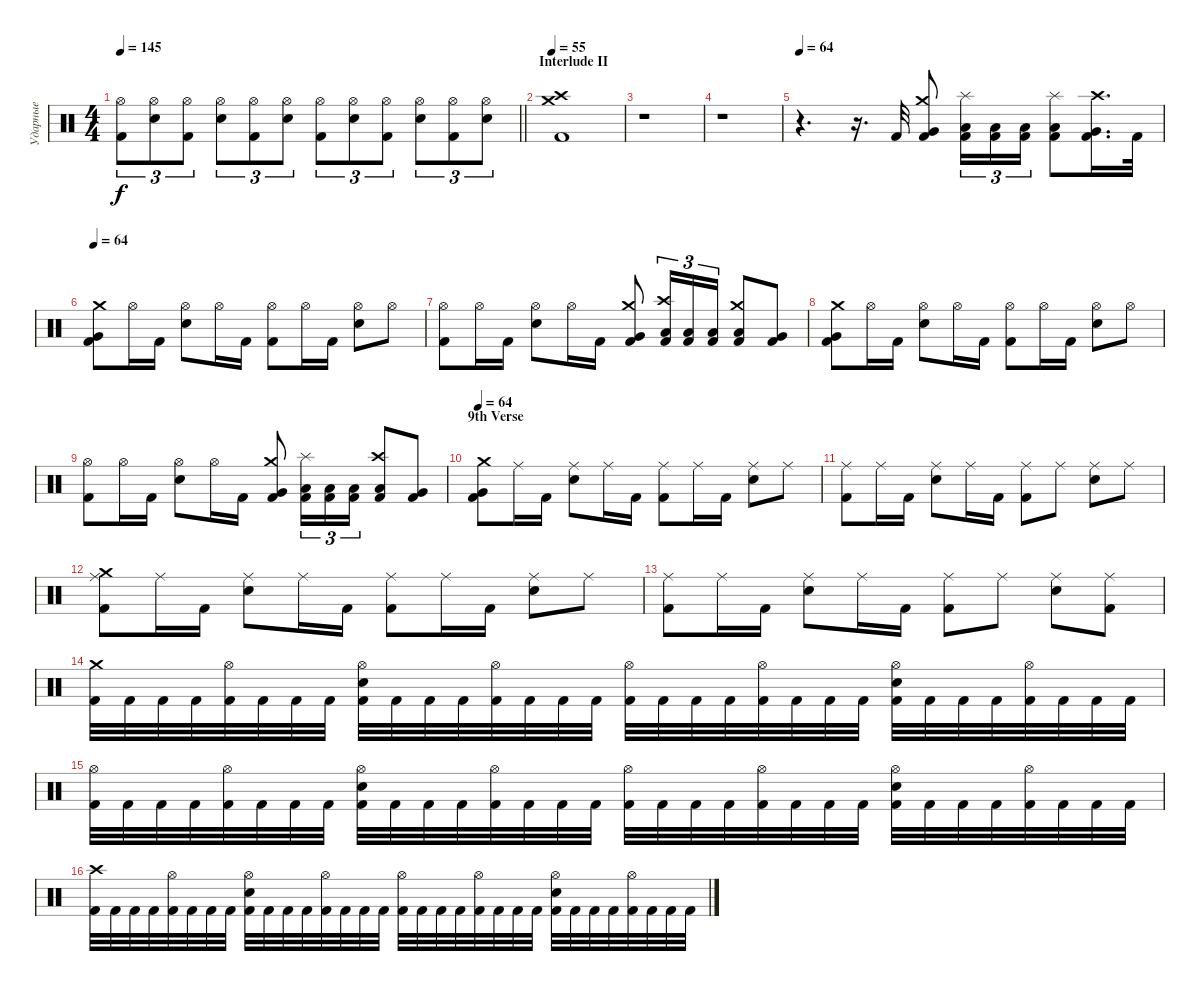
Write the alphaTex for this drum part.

\track ("Ударные" "Ударные") {instrument percussion}
\staff {score}
\articulation defaults
\ts (4 4)
\tempo 145
\clef neutral
\barLineRight lightlight
\ks c
("Kick (hit) 2" "Hi-Hat (open)").8{tu (3 2) dy f} ("Snare (hit) 2" "Hi-Hat (open)").8{tu (3 2)} ("Kick (hit) 2" "Hi-Hat (open)").8{tu (3 2)} ("Snare (hit) 2" "Hi-Hat (open)").8{tu (3 2)} ("Kick (hit) 2" "Hi-Hat (open)").8{tu (3 2)} ("Snare (hit) 2" "Hi-Hat (open)").8{tu (3 2)} ("Kick (hit) 2" "Hi-Hat (open)").8{tu (3 2)} ("Snare (hit) 2" "Hi-Hat (open)").8{tu (3 2)} ("Kick (hit) 2" "Hi-Hat (open)").8{tu (3 2)} ("Snare (hit) 2" "Hi-Hat (open)").8{tu (3 2)} ("Kick (hit) 2" "Hi-Hat (open)").8{tu (3 2)} ("Snare (hit) 2" "Hi-Hat (open)").8{tu (3 2)} |
\section ("" "Interlude II")
\tempo 55
("Kick (hit) 2" "Crash high (hit)" "Crash medium (hit)").1 |
r.1 |
r.1 |
\tempo 64
r.4{d} r.16{d} "Kick (hit) 2".32 ("Kick (hit) 2" "Very Low Tom (hit)" "Crash medium (hit)").8 ("Kick (hit) 2" "Low Floor Tom (hit)" "Splash (hit)").16{tu (3 2)} ("Kick (hit) 2" "Low Floor Tom (hit)").16{tu (3 2)} ("Kick (hit) 2" "Low Floor Tom (hit)").16{tu (3 2)} ("Kick (hit) 2" "Low Floor Tom (hit)" "Splash (hit)").8 ("Kick (hit) 2" "Very Low Tom (hit)" "Crash high (hit)").16{d} "Kick (hit) 2".32 |
\tempo 64
("Kick (hit) 2" "Very Low Tom (hit)" "Crash medium (hit)").8 "Hi-Hat (open)".16 "Kick (hit) 2".16 ("Electric Snare (hit)" "Hi-Hat (open)").8 "Hi-Hat (open)".16 "Kick (hit) 2".16 ("Kick (hit) 2" "Hi-Hat (open)").8 "Hi-Hat (open)".16 "Kick (hit) 2".16 ("Electric Snare (hit)" "Hi-Hat (open)").8 "Hi-Hat (open)".8 |
("Kick (hit) 2" "Hi-Hat (open)").8 "Hi-Hat (open)".16 "Kick (hit) 2".16 ("Electric Snare (hit)" "Hi-Hat (open)").8 "Hi-Hat (open)".16 "Kick (hit) 2".16 ("Kick (hit) 2" "Very Low Tom (hit)" "Crash medium (hit)").8 ("Kick (hit) 2" "Low Floor Tom (hit)" "Crash high (hit)").16{tu (3 2)} ("Kick (hit) 2" "Low Floor Tom (hit)").16{tu (3 2)} ("Kick (hit) 2" "Low Floor Tom (hit)").16{tu (3 2)} ("Kick (hit) 2" "Low Floor Tom (hit)" "Crash medium (hit)").8 ("Kick (hit) 2" "Very Low Tom (hit)").8 |
("Kick (hit) 2" "Very Low Tom (hit)" "Crash medium (hit)").8 "Hi-Hat (open)".16 "Kick (hit) 2".16 ("Electric Snare (hit)" "Hi-Hat (open)").8 "Hi-Hat (open)".16 "Kick (hit) 2".16 ("Kick (hit) 2" "Hi-Hat (open)").8 "Hi-Hat (open)".16 "Kick (hit) 2".16 ("Electric Snare (hit)" "Hi-Hat (open)").8 "Hi-Hat (open)".8 |
("Kick (hit) 2" "Hi-Hat (open)").8 "Hi-Hat (open)".16 "Kick (hit) 2".16 ("Electric Snare (hit)" "Hi-Hat (open)").8 "Hi-Hat (open)".16 "Kick (hit) 2".16 ("Kick (hit) 2" "Very Low Tom (hit)" "Crash medium (hit)").8 ("Kick (hit) 2" "Low Floor Tom (hit)" "Splash (hit)").16{tu (3 2)} ("Kick (hit) 2" "Low Floor Tom (hit)").16{tu (3 2)} ("Kick (hit) 2" "Low Floor Tom (hit)").16{tu (3 2)} ("Kick (hit) 2" "Low Floor Tom (hit)" "Crash high (hit)").8 ("Kick (hit) 2" "Very Low Tom (hit)").8 |
\section ("" "9th Verse")
\tempo 64
("Kick (hit) 2" "Very Low Tom (hit)" "Crash medium (hit)").8 "Ride (middle)".16 "Kick (hit) 2".16 ("Electric Snare (hit)" "Ride (middle)").8 "Ride (middle)".16 "Kick (hit) 2".16 ("Kick (hit) 2" "Ride (middle)").8 "Ride (middle)".16 "Kick (hit) 2".16 ("Electric Snare (hit)" "Ride (middle)").8 "Ride (middle)".8 |
("Kick (hit) 2" "Ride (middle)").8 "Ride (middle)".16 "Kick (hit) 2".16 ("Electric Snare (hit)" "Ride (middle)").8 "Ride (middle)".16 "Kick (hit) 2".16 ("Kick (hit) 2" "Ride (middle)").8 "Ride (middle)".8 ("Electric Snare (hit)" "Ride (middle)").8 "Ride (middle)".8 |
("Kick (hit) 2" "Ride (middle)" "Crash medium (hit)").8 "Ride (middle)".16 "Kick (hit) 2".16 ("Electric Snare (hit)" "Ride (middle)").8 "Ride (middle)".16 "Kick (hit) 2".16 ("Kick (hit) 2" "Ride (middle)").8 "Ride (middle)".16 "Kick (hit) 2".16 ("Electric Snare (hit)" "Ride (middle)").8 "Ride (middle)".8 |
("Kick (hit) 2" "Ride (middle)").8 "Ride (middle)".16 "Kick (hit) 2".16 ("Electric Snare (hit)" "Ride (middle)").8 "Ride (middle)".16 "Kick (hit) 2".16 ("Kick (hit) 2" "Ride (middle)").8 "Ride (middle)".8 ("Electric Snare (hit)" "Ride (middle)").8 ("Kick (hit) 2" "Ride (middle)").8 |
("Kick (hit) 2" "Crash medium (hit)").32 "Kick (hit) 2".32 "Kick (hit) 2".32 "Kick (hit) 2".32 ("Kick (hit) 2" "Hi-Hat (open)").32 "Kick (hit) 2".32 "Kick (hit) 2".32 "Kick (hit) 2".32 ("Kick (hit) 2" "Electric Snare (hit)" "Hi-Hat (open)").32 "Kick (hit) 2".32 "Kick (hit) 2".32 "Kick (hit) 2".32 ("Kick (hit) 2" "Hi-Hat (open)").32 "Kick (hit) 2".32 "Kick (hit) 2".32 "Kick (hit) 2".32 ("Kick (hit) 2" "Hi-Hat (open)").32 "Kick (hit) 2".32 "Kick (hit) 2".32 "Kick (hit) 2".32 ("Kick (hit) 2" "Hi-Hat (open)").32 "Kick (hit) 2".32 "Kick (hit) 2".32 "Kick (hit) 2".32 ("Kick (hit) 2" "Electric Snare (hit)" "Hi-Hat (open)").32 "Kick (hit) 2".32 "Kick (hit) 2".32 "Kick (hit) 2".32 ("Kick (hit) 2" "Hi-Hat (open)").32 "Kick (hit) 2".32 "Kick (hit) 2".32 "Kick (hit) 2".32 |
("Kick (hit) 2" "Hi-Hat (open)").32 "Kick (hit) 2".32 "Kick (hit) 2".32 "Kick (hit) 2".32 ("Kick (hit) 2" "Hi-Hat (open)").32 "Kick (hit) 2".32 "Kick (hit) 2".32 "Kick (hit) 2".32 ("Kick (hit) 2" "Electric Snare (hit)" "Hi-Hat (open)").32 "Kick (hit) 2".32 "Kick (hit) 2".32 "Kick (hit) 2".32 ("Kick (hit) 2" "Hi-Hat (open)").32 "Kick (hit) 2".32 "Kick (hit) 2".32 "Kick (hit) 2".32 ("Kick (hit) 2" "Hi-Hat (open)").32 "Kick (hit) 2".32 "Kick (hit) 2".32 "Kick (hit) 2".32 ("Kick (hit) 2" "Hi-Hat (open)").32 "Kick (hit) 2".32 "Kick (hit) 2".32 "Kick (hit) 2".32 ("Kick (hit) 2" "Electric Snare (hit)" "Hi-Hat (open)").32 "Kick (hit) 2".32 "Kick (hit) 2".32 "Kick (hit) 2".32 ("Kick (hit) 2" "Hi-Hat (open)").32 "Kick (hit) 2".32 "Kick (hit) 2".32 "Kick (hit) 2".32 |
("Kick (hit) 2" "Crash high (hit)").32 "Kick (hit) 2".32 "Kick (hit) 2".32 "Kick (hit) 2".32 ("Kick (hit) 2" "Hi-Hat (open)").32 "Kick (hit) 2".32 "Kick (hit) 2".32 "Kick (hit) 2".32 ("Kick (hit) 2" "Electric Snare (hit)" "Hi-Hat (open)").32 "Kick (hit) 2".32 "Kick (hit) 2".32 "Kick (hit) 2".32 ("Kick (hit) 2" "Hi-Hat (open)").32 "Kick (hit) 2".32 "Kick (hit) 2".32 "Kick (hit) 2".32 ("Kick (hit) 2" "Hi-Hat (open)").32 "Kick (hit) 2".32 "Kick (hit) 2".32 "Kick (hit) 2".32 ("Kick (hit) 2" "Hi-Hat (open)").32 "Kick (hit) 2".32 "Kick (hit) 2".32 "Kick (hit) 2".32 ("Kick (hit) 2" "Electric Snare (hit)" "Hi-Hat (open)").32 "Kick (hit) 2".32 "Kick (hit) 2".32 "Kick (hit) 2".32 ("Kick (hit) 2" "Hi-Hat (open)").32 "Kick (hit) 2".32 "Kick (hit) 2".32 "Kick (hit) 2".32
